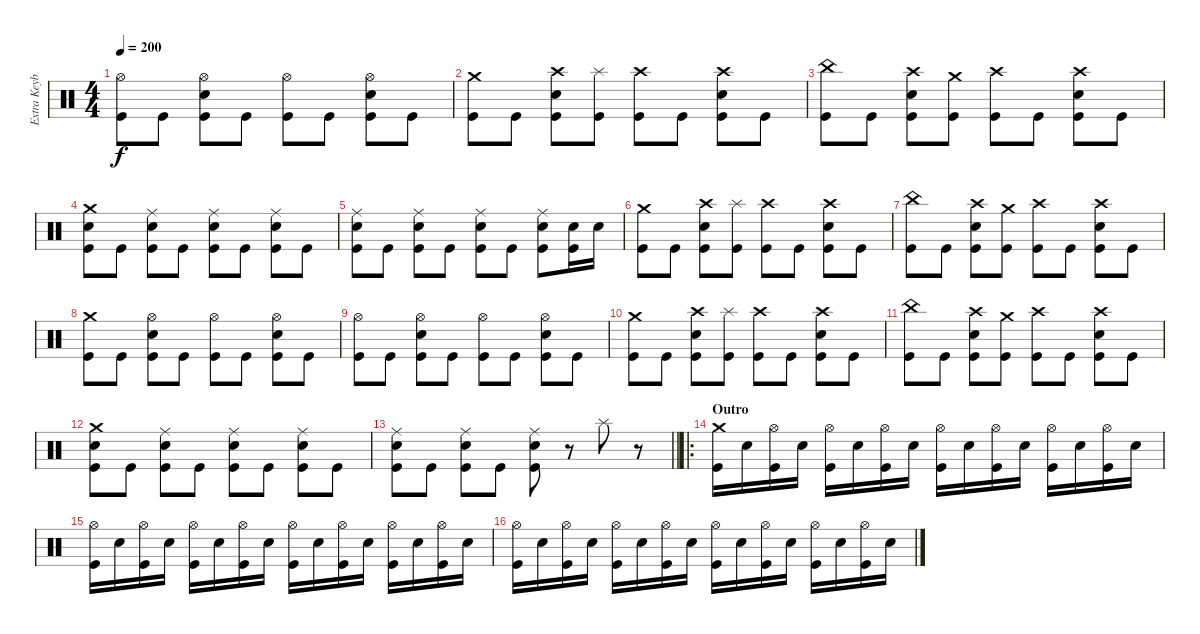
\track ("Extra Keyboard" "Extra Keyb") {instrument percussion}
\staff {score}
\articulation defaults
\ts (4 4)
\tempo 200
\clef neutral
\ks c
("Hi-Hat (open)" "Kick (hit)").8{dy f} "Kick (hit)".8 ("Hi-Hat (open)" "Electric Snare (hit)" "Kick (hit)").8 "Kick (hit)".8 ("Hi-Hat (open)" "Kick (hit)").8 "Kick (hit)".8 ("Hi-Hat (open)" "Electric Snare (hit)" "Kick (hit)").8 "Kick (hit)".8 |
("Crash medium (hit)" "Kick (hit)").8 "Kick (hit)".8 ("Crash high (hit)" "Electric Snare (hit)" "Kick (hit)").8 ("Splash (hit)" "Kick (hit)").8 ("Crash high (hit)" "Kick (hit)").8 "Kick (hit)".8 ("Crash high (hit)" "Electric Snare (hit)" "Kick (hit)").8 "Kick (hit)".8 |
("China (hit)" "Kick (hit)").8 "Kick (hit)".8 ("Crash high (hit)" "Electric Snare (hit)" "Kick (hit)").8 ("Crash medium (hit)" "Kick (hit)").8 ("Crash high (hit)" "Kick (hit)").8 "Kick (hit)".8 ("Crash high (hit)" "Electric Snare (hit)" "Kick (hit)").8 "Kick (hit)".8 |
("Crash medium (hit)" "Electric Snare (hit)" "Kick (hit)").8 "Kick (hit)".8 ("Ride (middle)" "Electric Snare (hit)" "Kick (hit)").8 "Kick (hit)".8 ("Ride (middle)" "Electric Snare (hit)" "Kick (hit)").8 "Kick (hit)".8 ("Ride (middle)" "Electric Snare (hit)" "Kick (hit)").8 "Kick (hit)".8 |
("Ride (middle)" "Electric Snare (hit)" "Kick (hit)").8 "Kick (hit)".8 ("Ride (middle)" "Electric Snare (hit)" "Kick (hit)").8 "Kick (hit)".8 ("Ride (middle)" "Electric Snare (hit)" "Kick (hit)").8 "Kick (hit)".8 ("Ride (middle)" "Electric Snare (hit)" "Kick (hit)").8 ("Electric Snare (hit)" "Kick (hit)").16 "Electric Snare (hit)".16 |
("Crash medium (hit)" "Kick (hit)").8 "Kick (hit)".8 ("Crash high (hit)" "Electric Snare (hit)" "Kick (hit)").8 ("Splash (hit)" "Kick (hit)").8 ("Crash high (hit)" "Kick (hit)").8 "Kick (hit)".8 ("Crash high (hit)" "Electric Snare (hit)" "Kick (hit)").8 "Kick (hit)".8 |
("China (hit)" "Kick (hit)").8 "Kick (hit)".8 ("Crash high (hit)" "Electric Snare (hit)" "Kick (hit)").8 ("Crash medium (hit)" "Kick (hit)").8 ("Crash high (hit)" "Kick (hit)").8 "Kick (hit)".8 ("Crash high (hit)" "Electric Snare (hit)" "Kick (hit)").8 "Kick (hit)".8 |
("Crash medium (hit)" "Kick (hit)").8 "Kick (hit)".8 ("Hi-Hat (open)" "Electric Snare (hit)" "Kick (hit)").8 "Kick (hit)".8 ("Hi-Hat (open)" "Kick (hit)").8 "Kick (hit)".8 ("Hi-Hat (open)" "Electric Snare (hit)" "Kick (hit)").8 "Kick (hit)".8 |
("Hi-Hat (open)" "Kick (hit)").8 "Kick (hit)".8 ("Hi-Hat (open)" "Electric Snare (hit)" "Kick (hit)").8 "Kick (hit)".8 ("Hi-Hat (open)" "Kick (hit)").8 "Kick (hit)".8 ("Hi-Hat (open)" "Electric Snare (hit)" "Kick (hit)").8 "Kick (hit)".8 |
("Crash medium (hit)" "Kick (hit)").8 "Kick (hit)".8 ("Crash high (hit)" "Electric Snare (hit)" "Kick (hit)").8 ("Splash (hit)" "Kick (hit)").8 ("Crash high (hit)" "Kick (hit)").8 "Kick (hit)".8 ("Crash high (hit)" "Electric Snare (hit)" "Kick (hit)").8 "Kick (hit)".8 |
("China (hit)" "Kick (hit)").8 "Kick (hit)".8 ("Crash high (hit)" "Electric Snare (hit)" "Kick (hit)").8 ("Crash medium (hit)" "Kick (hit)").8 ("Crash high (hit)" "Kick (hit)").8 "Kick (hit)".8 ("Crash high (hit)" "Electric Snare (hit)" "Kick (hit)").8 "Kick (hit)".8 |
("Crash medium (hit)" "Electric Snare (hit)" "Kick (hit)").8 "Kick (hit)".8 ("Ride (middle)" "Electric Snare (hit)" "Kick (hit)").8 "Kick (hit)".8 ("Ride (middle)" "Electric Snare (hit)" "Kick (hit)").8 "Kick (hit)".8 ("Ride (middle)" "Electric Snare (hit)" "Kick (hit)").8 "Kick (hit)".8 |
\barLineRight lightlight
("Ride (middle)" "Electric Snare (hit)" "Kick (hit)").8 "Kick (hit)".8 ("Ride (middle)" "Electric Snare (hit)" "Kick (hit)").8 "Kick (hit)".8 ("Ride (middle)" "Electric Snare (hit)" "Kick (hit)").8 r.8 "Splash (hit)".8 r.8 |
\ro
\section ("" "Outro")
("Crash medium (hit)" "Kick (hit)").16 "Electric Snare (hit)".16 ("Hi-Hat (open)" "Kick (hit)").16 "Electric Snare (hit)".16 ("Hi-Hat (open)" "Kick (hit)").16 "Electric Snare (hit)".16 ("Hi-Hat (open)" "Kick (hit)").16 "Electric Snare (hit)".16 ("Hi-Hat (open)" "Kick (hit)").16 "Electric Snare (hit)".16 ("Hi-Hat (open)" "Kick (hit)").16 "Electric Snare (hit)".16 ("Hi-Hat (open)" "Kick (hit)").16 "Electric Snare (hit)".16 ("Hi-Hat (open)" "Kick (hit)").16 "Electric Snare (hit)".16 |
("Hi-Hat (open)" "Kick (hit)").16 "Electric Snare (hit)".16 ("Hi-Hat (open)" "Kick (hit)").16 "Electric Snare (hit)".16 ("Hi-Hat (open)" "Kick (hit)").16 "Electric Snare (hit)".16 ("Hi-Hat (open)" "Kick (hit)").16 "Electric Snare (hit)".16 ("Hi-Hat (open)" "Kick (hit)").16 "Electric Snare (hit)".16 ("Hi-Hat (open)" "Kick (hit)").16 "Electric Snare (hit)".16 ("Hi-Hat (open)" "Kick (hit)").16 "Electric Snare (hit)".16 ("Hi-Hat (open)" "Kick (hit)").16 "Electric Snare (hit)".16 |
("Hi-Hat (open)" "Kick (hit)").16 "Electric Snare (hit)".16 ("Hi-Hat (open)" "Kick (hit)").16 "Electric Snare (hit)".16 ("Hi-Hat (open)" "Kick (hit)").16 "Electric Snare (hit)".16 ("Hi-Hat (open)" "Kick (hit)").16 "Electric Snare (hit)".16 ("Hi-Hat (open)" "Kick (hit)").16 "Electric Snare (hit)".16 ("Hi-Hat (open)" "Kick (hit)").16 "Electric Snare (hit)".16 ("Hi-Hat (open)" "Kick (hit)").16 "Electric Snare (hit)".16 ("Hi-Hat (open)" "Kick (hit)").16 "Electric Snare (hit)".16
